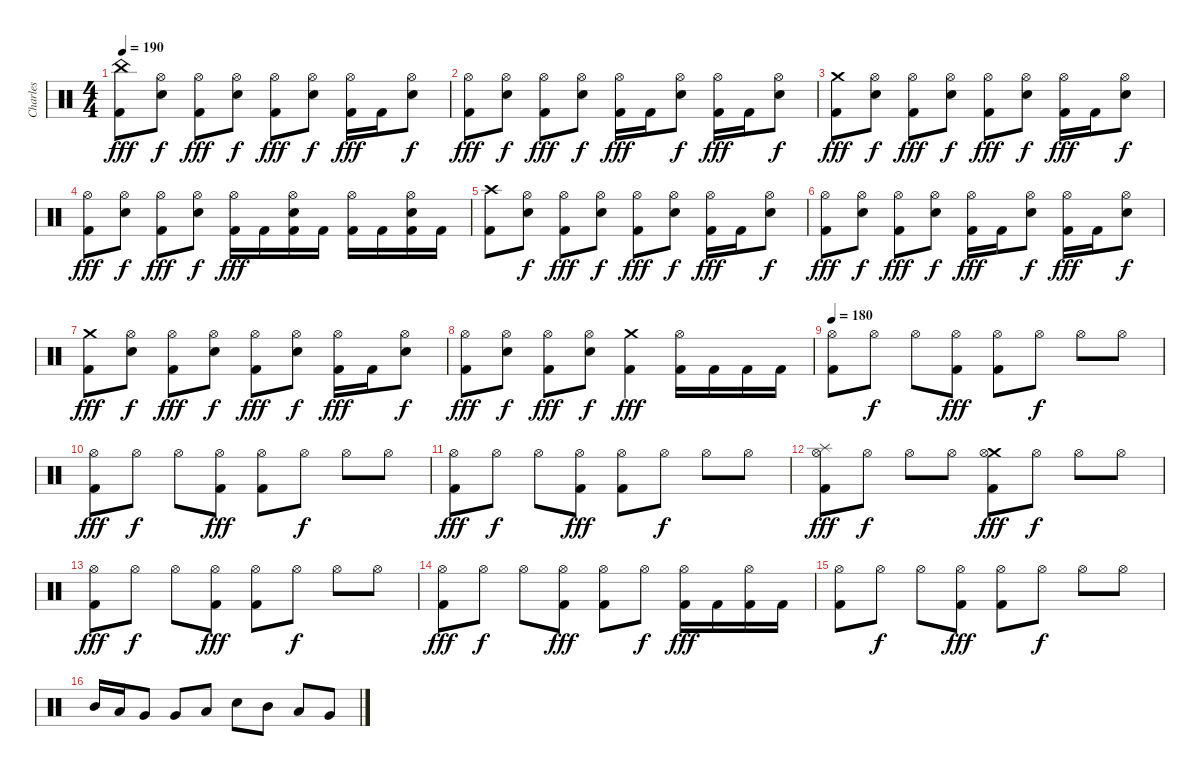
\track ("Charles" "Charles") {instrument percussion}
\staff {score}
\articulation defaults
\ts (4 4)
\tempo 190
\clef neutral
\ks c
("China (hit)" "Kick (hit) 2").8{dy fff} ("Hi-Hat (open)" "Electric Snare (hit)").8{dy f} ("Hi-Hat (open)" "Kick (hit) 2").8{dy fff} ("Hi-Hat (open)" "Electric Snare (hit)").8{dy f} ("Hi-Hat (open)" "Kick (hit) 2").8{dy fff} ("Hi-Hat (open)" "Electric Snare (hit)").8{dy f} ("Hi-Hat (open)" "Kick (hit) 2").16{dy fff} "Kick (hit) 2".16 ("Hi-Hat (open)" "Electric Snare (hit)").8{dy f} |
("Hi-Hat (open)" "Kick (hit) 2").8{dy fff} ("Hi-Hat (open)" "Electric Snare (hit)").8{dy f} ("Hi-Hat (open)" "Kick (hit) 2").8{dy fff} ("Hi-Hat (open)" "Electric Snare (hit)").8{dy f} ("Hi-Hat (open)" "Kick (hit) 2").16{dy fff} "Kick (hit) 2".16 ("Hi-Hat (open)" "Electric Snare (hit)").8{dy f} ("Hi-Hat (open)" "Kick (hit) 2").16{dy fff} "Kick (hit) 2".16 ("Hi-Hat (open)" "Electric Snare (hit)").8{dy f} |
("Crash medium (hit)" "Kick (hit) 2").8{dy fff} ("Hi-Hat (open)" "Electric Snare (hit)").8{dy f} ("Hi-Hat (open)" "Kick (hit) 2").8{dy fff} ("Hi-Hat (open)" "Electric Snare (hit)").8{dy f} ("Hi-Hat (open)" "Kick (hit) 2").8{dy fff} ("Hi-Hat (open)" "Electric Snare (hit)").8{dy f} ("Hi-Hat (open)" "Kick (hit) 2").16{dy fff} "Kick (hit) 2".16 ("Hi-Hat (open)" "Electric Snare (hit)").8{dy f} |
("Hi-Hat (open)" "Kick (hit) 2").8{dy fff} ("Hi-Hat (open)" "Electric Snare (hit)").8{dy f} ("Hi-Hat (open)" "Kick (hit) 2").8{dy fff} ("Hi-Hat (open)" "Electric Snare (hit)").8{dy f} ("Hi-Hat (open)" "Kick (hit) 2").16{dy fff} "Kick (hit) 2".16 ("Hi-Hat (open)" "Electric Snare (hit)" "Kick (hit) 2").16 "Kick (hit) 2".16 ("Hi-Hat (open)" "Kick (hit) 2").16 "Kick (hit) 2".16 ("Hi-Hat (open)" "Electric Snare (hit)" "Kick (hit) 2").16 "Kick (hit) 2".16 |
("Crash high (hit)" "Kick (hit) 2").8 ("Hi-Hat (open)" "Electric Snare (hit)").8{dy f} ("Hi-Hat (open)" "Kick (hit) 2").8{dy fff} ("Hi-Hat (open)" "Electric Snare (hit)").8{dy f} ("Hi-Hat (open)" "Kick (hit) 2").8{dy fff} ("Hi-Hat (open)" "Electric Snare (hit)").8{dy f} ("Hi-Hat (open)" "Kick (hit) 2").16{dy fff} "Kick (hit) 2".16 ("Hi-Hat (open)" "Electric Snare (hit)").8{dy f} |
("Hi-Hat (open)" "Kick (hit) 2").8{dy fff} ("Hi-Hat (open)" "Electric Snare (hit)").8{dy f} ("Hi-Hat (open)" "Kick (hit) 2").8{dy fff} ("Hi-Hat (open)" "Electric Snare (hit)").8{dy f} ("Hi-Hat (open)" "Kick (hit) 2").16{dy fff} "Kick (hit) 2".16 ("Hi-Hat (open)" "Electric Snare (hit)").8{dy f} ("Hi-Hat (open)" "Kick (hit) 2").16{dy fff} "Kick (hit) 2".16 ("Hi-Hat (open)" "Electric Snare (hit)").8{dy f} |
("Crash medium (hit)" "Kick (hit) 2").8{dy fff} ("Hi-Hat (open)" "Electric Snare (hit)").8{dy f} ("Hi-Hat (open)" "Kick (hit) 2").8{dy fff} ("Hi-Hat (open)" "Electric Snare (hit)").8{dy f} ("Hi-Hat (open)" "Kick (hit) 2").8{dy fff} ("Hi-Hat (open)" "Electric Snare (hit)").8{dy f} ("Hi-Hat (open)" "Kick (hit) 2").16{dy fff} "Kick (hit) 2".16 ("Hi-Hat (open)" "Electric Snare (hit)").8{dy f} |
("Hi-Hat (open)" "Kick (hit) 2").8{dy fff} ("Hi-Hat (open)" "Electric Snare (hit)").8{dy f} ("Hi-Hat (open)" "Kick (hit) 2").8{dy fff} ("Hi-Hat (open)" "Electric Snare (hit)").8{dy f} ("Crash medium (hit)" "Kick (hit) 2").4{dy fff} ("Hi-Hat (open)" "Kick (hit) 2").16 "Kick (hit) 2".16 "Kick (hit) 2".16 "Kick (hit) 2".16 |
\tempo 180
("Hi-Hat (open)" "Kick (hit) 2").8 "Hi-Hat (open)".8{dy f} "Hi-Hat (open)".8 ("Hi-Hat (open)" "Kick (hit) 2").8{dy fff} ("Hi-Hat (open)" "Kick (hit) 2").8 "Hi-Hat (open)".8{dy f} "Hi-Hat (open)".8 "Hi-Hat (open)".8 |
("Hi-Hat (open)" "Kick (hit) 2").8{dy fff} "Hi-Hat (open)".8{dy f} "Hi-Hat (open)".8 ("Hi-Hat (open)" "Kick (hit) 2").8{dy fff} ("Hi-Hat (open)" "Kick (hit) 2").8 "Hi-Hat (open)".8{dy f} "Hi-Hat (open)".8 "Hi-Hat (open)".8 |
("Hi-Hat (open)" "Kick (hit) 2").8{dy fff} "Hi-Hat (open)".8{dy f} "Hi-Hat (open)".8 ("Hi-Hat (open)" "Kick (hit) 2").8{dy fff} ("Hi-Hat (open)" "Kick (hit) 2").8 "Hi-Hat (open)".8{dy f} "Hi-Hat (open)".8 "Hi-Hat (open)".8 |
("Splash (hit)" "Hi-Hat (open)" "Kick (hit) 2").8{dy fff} "Hi-Hat (open)".8{dy f} "Hi-Hat (open)".8 "Hi-Hat (open)".8 ("Crash medium (hit)" "Hi-Hat (open)" "Kick (hit) 2").8{dy fff} "Hi-Hat (open)".8{dy f} "Hi-Hat (open)".8 "Hi-Hat (open)".8 |
("Hi-Hat (open)" "Kick (hit) 2").8{dy fff} "Hi-Hat (open)".8{dy f} "Hi-Hat (open)".8 ("Hi-Hat (open)" "Kick (hit) 2").8{dy fff} ("Hi-Hat (open)" "Kick (hit) 2").8 "Hi-Hat (open)".8{dy f} "Hi-Hat (open)".8 "Hi-Hat (open)".8 |
("Hi-Hat (open)" "Kick (hit) 2").8{dy fff} "Hi-Hat (open)".8{dy f} "Hi-Hat (open)".8 ("Hi-Hat (open)" "Kick (hit) 2").8{dy fff} ("Hi-Hat (open)" "Kick (hit) 2").8 "Hi-Hat (open)".8{dy f} ("Hi-Hat (open)" "Kick (hit) 2").16{dy fff} "Kick (hit) 2".16 ("Hi-Hat (open)" "Kick (hit) 2").16 "Kick (hit) 2".16 |
("Hi-Hat (open)" "Kick (hit) 2").8 "Hi-Hat (open)".8{dy f} "Hi-Hat (open)".8 ("Hi-Hat (open)" "Kick (hit) 2").8{dy fff} ("Hi-Hat (open)" "Kick (hit) 2").8 "Hi-Hat (open)".8{dy f} "Hi-Hat (open)".8 "Hi-Hat (open)".8 |
"Mid Tom (hit)".16 "Low Tom (hit)".16 "Very Low Tom (hit)".8 "Very Low Tom (hit)".8 "Low Floor Tom (hit)".8 "Electric Snare (hit)".8 "Mid Tom (hit)".8 "Low Tom (hit)".8 "Very Low Tom (hit)".8
